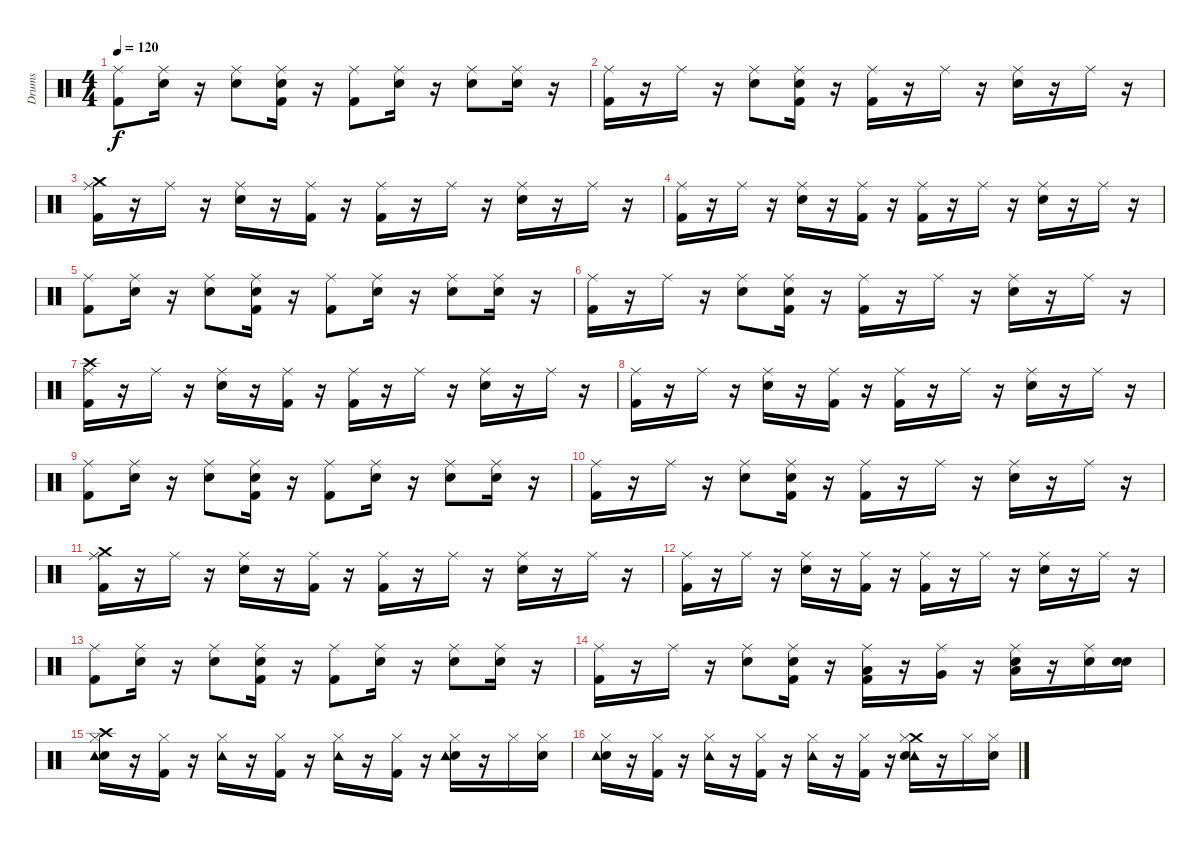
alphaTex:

\track ("Drums" "Drums") {instrument percussion}
\staff {score}
\articulation defaults
\ts (4 4)
\tempo 120
\clef neutral
\ks c
("Kick (hit) 2" "Ride (middle)").8{dy f} ("Snare (hit)" "Ride (middle)").16 r.16 ("Ride (middle)" "Snare (hit) 2").8 ("Snare (hit)" "Kick (hit) 2" "Ride (middle)").16 r.16 ("Ride (middle)" "Kick (hit) 2").8 ("Snare (hit)" "Ride (middle)").16 r.16 ("Snare (hit) 2" "Ride (middle)").8 ("Snare (hit)" "Ride (middle)").16 r.16 |
("Kick (hit) 2" "Ride (middle)").16 r.16 "Ride (middle)".16 r.16 ("Snare (hit) 2" "Ride (middle)").8 ("Snare (hit)" "Ride (middle)" "Kick (hit) 2").16 r.16 ("Ride (middle)" "Kick (hit) 2").16 r.16 "Ride (middle)".16 r.16 ("Ride (middle)" "Snare (hit) 2").16 r.16 "Ride (middle)".16 r.16 |
("Crash medium (hit)" "Kick (hit) 2" "Ride (middle)").16 r.16 "Ride (middle)".16 r.16 ("Snare (hit) 2" "Ride (middle)").16 r.16 ("Kick (hit) 2" "Ride (middle)").16 r.16 ("Kick (hit) 2" "Ride (middle)").16 r.16 "Ride (middle)".16 r.16 ("Ride (middle)" "Snare (hit) 2").16 r.16 "Ride (middle)".16 r.16 |
("Ride (middle)" "Kick (hit) 2").16 r.16 "Ride (middle)".16 r.16 ("Snare (hit) 2" "Ride (middle)").16 r.16 ("Kick (hit) 2" "Ride (middle)").16 r.16 ("Ride (middle)" "Kick (hit) 2").16 r.16 "Ride (middle)".16 r.16 ("Snare (hit) 2" "Ride (middle)").16 r.16 "Ride (middle)".16 r.16 |
("Ride (middle)" "Kick (hit) 2").8 ("Snare (hit)" "Ride (middle)").16 r.16 ("Ride (middle)" "Snare (hit) 2").8 ("Snare (hit)" "Ride (middle)" "Kick (hit) 2").16 r.16 ("Kick (hit) 2" "Ride (middle)").8 ("Snare (hit)" "Ride (middle)").16 r.16 ("Ride (middle)" "Snare (hit) 2").8 ("Snare (hit)" "Ride (middle)").16 r.16 |
("Ride (middle)" "Kick (hit) 2").16 r.16 "Ride (middle)".16 r.16 ("Ride (middle)" "Snare (hit) 2").8 ("Snare (hit)" "Kick (hit) 2" "Ride (middle)").16 r.16 ("Ride (middle)" "Kick (hit) 2").16 r.16 "Ride (middle)".16 r.16 ("Ride (middle)" "Snare (hit) 2").16 r.16 "Ride (middle)".16 r.16 |
("Ride (middle)" "Kick (hit) 2" "Crash high (hit)").16 r.16 "Ride (middle)".16 r.16 ("Snare (hit) 2" "Ride (middle)").16 r.16 ("Kick (hit) 2" "Ride (middle)").16 r.16 ("Ride (middle)" "Kick (hit) 2").16 r.16 "Ride (middle)".16 r.16 ("Ride (middle)" "Snare (hit) 2").16 r.16 "Ride (middle)".16 r.16 |
("Kick (hit) 2" "Ride (middle)").16 r.16 "Ride (middle)".16 r.16 ("Ride (middle)" "Snare (hit) 2").16 r.16 ("Ride (middle)" "Kick (hit) 2").16 r.16 ("Ride (middle)" "Kick (hit) 2").16 r.16 "Ride (middle)".16 r.16 ("Ride (middle)" "Snare (hit) 2").16 r.16 "Ride (middle)".16 r.16 |
("Ride (middle)" "Kick (hit) 2").8 ("Snare (hit)" "Ride (middle)").16 r.16 ("Ride (middle)" "Snare (hit) 2").8 ("Snare (hit)" "Ride (middle)" "Kick (hit) 2").16 r.16 ("Kick (hit) 2" "Ride (middle)").8 ("Snare (hit)" "Ride (middle)").16 r.16 ("Snare (hit) 2" "Ride (middle)").8 ("Snare (hit)" "Ride (middle)").16 r.16 |
("Kick (hit) 2" "Ride (middle)").16 r.16 "Ride (middle)".16 r.16 ("Snare (hit) 2" "Ride (middle)").8 ("Snare (hit)" "Kick (hit) 2" "Ride (middle)").16 r.16 ("Kick (hit) 2" "Ride (middle)").16 r.16 "Ride (middle)".16 r.16 ("Ride (middle)" "Snare (hit) 2").16 r.16 "Ride (middle)".16 r.16 |
("Crash medium (hit)" "Kick (hit) 2" "Ride (middle)").16 r.16 "Ride (middle)".16 r.16 ("Ride (middle)" "Snare (hit) 2").16 r.16 ("Ride (middle)" "Kick (hit) 2").16 r.16 ("Kick (hit) 2" "Ride (middle)").16 r.16 "Ride (middle)".16 r.16 ("Snare (hit) 2" "Ride (middle)").16 r.16 "Ride (middle)".16 r.16 |
("Ride (middle)" "Kick (hit) 2").16 r.16 "Ride (middle)".16 r.16 ("Snare (hit) 2" "Ride (middle)").16 r.16 ("Ride (middle)" "Kick (hit) 2").16 r.16 ("Ride (middle)" "Kick (hit) 2").16 r.16 "Ride (middle)".16 r.16 ("Ride (middle)" "Snare (hit) 2").16 r.16 "Ride (middle)".16 r.16 |
("Ride (middle)" "Kick (hit) 2").8 ("Snare (hit)" "Ride (middle)").16 r.16 ("Snare (hit) 2" "Ride (middle)").8 ("Snare (hit)" "Kick (hit) 2" "Ride (middle)").16 r.16 ("Kick (hit) 2" "Ride (middle)").8 ("Snare (hit)" "Ride (middle)").16 r.16 ("Ride (middle)" "Snare (hit) 2").8 ("Snare (hit)" "Ride (middle)").16 r.16 |
("Kick (hit) 2" "Ride (middle)").16 r.16 "Ride (middle)".16 r.16 ("Snare (hit) 2" "Ride (middle)").8 ("Snare (hit)" "Kick (hit) 2" "Ride (middle)").16 r.16 ("Kick (hit) 2" "Low Tom (hit)" "Ride (middle)").16 r.16 ("Ride (middle)" "Very Low Tom (hit)").16 r.16 ("Ride (middle)" "Snare (hit) 2" "Low Floor Tom (hit)").16 r.16 ("Snare (hit) 2" "Ride (middle)").16 ("Snare (hit)" "Snare (hit) 2").16 |
("Snare (hit)" "Crash high (hit)" "Hi-Hat (closed)" "Tambourine (hit)").16 r.16 ("Kick (hit) 2" "Hi-Hat (closed)").16 r.16 ("Hi-Hat (closed)" "Tambourine (hit)").16 r.16 ("Kick (hit) 2" "Hi-Hat (closed)").16 r.16 ("Tambourine (hit)" "Hi-Hat (closed)").16 r.16 ("Hi-Hat (closed)" "Kick (hit) 2").16 r.16 ("Hi-Hat (closed)" "Snare (hit) 2" "Tambourine (hit)").16 r.16 "Hi-Hat (closed)".16 ("Snare (hit)" "Hi-Hat (closed)").16 |
("Snare (hit)" "Tambourine (hit)" "Hi-Hat (closed)").16 r.16 ("Kick (hit) 2" "Hi-Hat (closed)").16 r.16 ("Hi-Hat (closed)" "Tambourine (hit)").16 r.16 ("Kick (hit) 2" "Hi-Hat (closed)").16 r.16 ("Tambourine (hit)" "Hi-Hat (closed)").16 r.16 ("Hi-Hat (closed)" "Kick (hit) 2").16 r.16 ("Crash medium (hit)" "Tambourine (hit)" "Snare (hit) 2" "Hi-Hat (closed)").16 r.16 "Hi-Hat (closed)".16 ("Snare (hit)" "Hi-Hat (closed)").16
